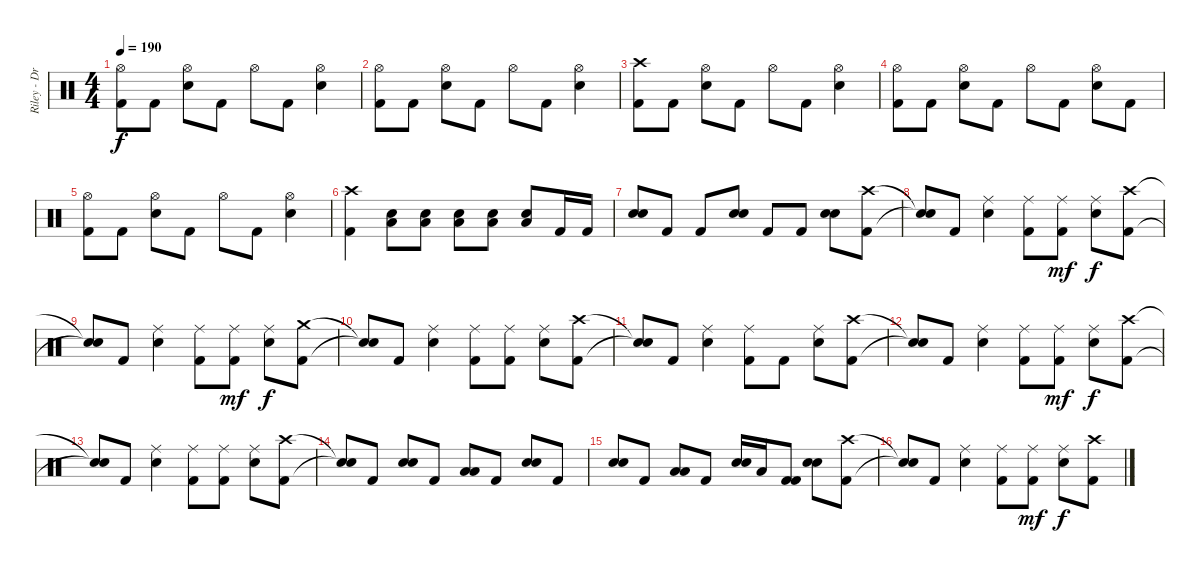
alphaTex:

\track ("Riley - Drums" "Riley - Dr") {instrument percussion}
\staff {score}
\articulation defaults
\ts (4 4)
\tempo 190
\clef neutral
\ks c
("Kick (hit) 2" "Hi-Hat (open)").8{dy f} "Kick (hit) 2".8 ("Electric Snare (hit)" "Hi-Hat (open)").8 "Kick (hit) 2".8 "Hi-Hat (open)".8 "Kick (hit) 2".8 ("Electric Snare (hit)" "Hi-Hat (open)").4 |
("Kick (hit) 2" "Hi-Hat (open)").8 "Kick (hit) 2".8 ("Electric Snare (hit)" "Hi-Hat (open)").8 "Kick (hit) 2".8 "Hi-Hat (open)".8 "Kick (hit) 2".8 ("Electric Snare (hit)" "Hi-Hat (open)").4 |
("Kick (hit) 2" "Crash high (hit)").8 "Kick (hit) 2".8 ("Electric Snare (hit)" "Hi-Hat (open)").8 "Kick (hit) 2".8 "Hi-Hat (open)".8 "Kick (hit) 2".8 ("Electric Snare (hit)" "Hi-Hat (open)").4 |
("Kick (hit) 2" "Hi-Hat (open)").8 "Kick (hit) 2".8 ("Electric Snare (hit)" "Hi-Hat (open)").8 "Kick (hit) 2".8 "Hi-Hat (open)".8 "Kick (hit) 2".8 ("Electric Snare (hit)" "Hi-Hat (open)").8 "Kick (hit) 2".8 |
("Kick (hit) 2" "Hi-Hat (open)").8 "Kick (hit) 2".8 ("Electric Snare (hit)" "Hi-Hat (open)").8 "Kick (hit) 2".8 "Hi-Hat (open)".8 "Kick (hit) 2".8 ("Electric Snare (hit)" "Hi-Hat (open)").4 |
("Kick (hit) 2" "Crash high (hit)").4 ("Electric Snare (hit)" "Low Tom (hit)").8 ("Electric Snare (hit)" "Low Tom (hit)").8 ("Electric Snare (hit)" "Low Tom (hit)").8 ("Electric Snare (hit)" "Low Tom (hit)").8 ("Electric Snare (hit)" "Low Tom (hit)").8 "Kick (hit) 2".16 "Kick (hit) 2".16 |
("Electric Snare (hit)" "Electric Snare (hit)").8 "Kick (hit) 2".8 "Kick (hit) 2".8 ("Electric Snare (hit)" "Electric Snare (hit)").8 "Kick (hit) 2".8 "Kick (hit) 2".8 ("Electric Snare (hit)" "Electric Snare (hit)").8 ("Kick (hit) 2" "Crash high (hit)").8 |
("Snare (hit)"{t} "Snare (hit)"{t}).8 "Kick (hit) 2".8 ("Electric Snare (hit)" "Ride (middle)").4 ("Kick (hit) 2" "Ride (middle)").8 ("Kick (hit) 2" "Ride (middle)").8{dy mf} ("Electric Snare (hit)" "Ride (middle)").8{dy f} ("Kick (hit) 2" "Crash high (hit)").8 |
("Snare (hit)"{t} "Snare (hit)"{t}).8 "Kick (hit) 2".8 ("Electric Snare (hit)" "Ride (middle)").4 ("Kick (hit) 2" "Ride (middle)").8 ("Kick (hit) 2" "Ride (middle)").8{dy mf} ("Electric Snare (hit)" "Ride (middle)").8{dy f} ("Kick (hit) 2" "Crash medium (hit)").8 |
("Snare (hit)"{t} "Snare (hit)"{t}).8 "Kick (hit) 2".8 ("Electric Snare (hit)" "Ride (middle)").4 ("Kick (hit) 2" "Ride (middle)").8 ("Kick (hit) 2" "Ride (middle)").8 ("Electric Snare (hit)" "Ride (middle)").8 ("Kick (hit) 2" "Crash high (hit)").8 |
("Snare (hit)"{t} "Snare (hit)"{t}).8 "Kick (hit) 2".8 ("Electric Snare (hit)" "Ride (middle)").4 ("Kick (hit) 2" "Ride (middle)").8 "Kick (hit) 2".8 ("Electric Snare (hit)" "Ride (middle)").8 ("Kick (hit) 2" "Crash high (hit)").8 |
("Snare (hit)"{t} "Snare (hit)"{t}).8 "Kick (hit) 2".8 ("Electric Snare (hit)" "Ride (middle)").4 ("Kick (hit) 2" "Ride (middle)").8 ("Kick (hit) 2" "Ride (middle)").8{dy mf} ("Electric Snare (hit)" "Ride (middle)").8{dy f} ("Kick (hit) 2" "Crash high (hit)").8 |
("Snare (hit)"{t} "Snare (hit)"{t}).8 "Kick (hit) 2".8 ("Electric Snare (hit)" "Ride (middle)").4 ("Kick (hit) 2" "Ride (middle)").8 ("Kick (hit) 2" "Ride (middle)").8 ("Electric Snare (hit)" "Ride (middle)").8 ("Kick (hit) 2" "Crash high (hit)").8 |
("Snare (hit)"{t} "Snare (hit)"{t}).8 "Kick (hit) 2".8 ("Electric Snare (hit)" "Electric Snare (hit)").8 "Kick (hit) 2".8 ("Low Tom (hit)" "Low Tom (hit)").8 "Kick (hit) 2".8 ("Electric Snare (hit)" "Electric Snare (hit)").8 "Kick (hit) 2".8 |
("Electric Snare (hit)" "Electric Snare (hit)").8 "Kick (hit) 2".8 ("Low Tom (hit)" "Low Tom (hit)").8 "Kick (hit) 2".8 ("Electric Snare (hit)" "Electric Snare (hit)").16 "Low Tom (hit)".16 ("Kick (hit) 2" "Kick (hit) 2").8 ("Electric Snare (hit)" "Electric Snare (hit)").8 ("Kick (hit) 2" "Crash high (hit)").8 |
("Snare (hit)"{t} "Snare (hit)"{t}).8 "Kick (hit) 2".8 ("Electric Snare (hit)" "Ride (middle)").4 ("Kick (hit) 2" "Ride (middle)").8 ("Kick (hit) 2" "Ride (middle)").8{dy mf} ("Electric Snare (hit)" "Ride (middle)").8{dy f} ("Kick (hit) 2" "Crash high (hit)").8
